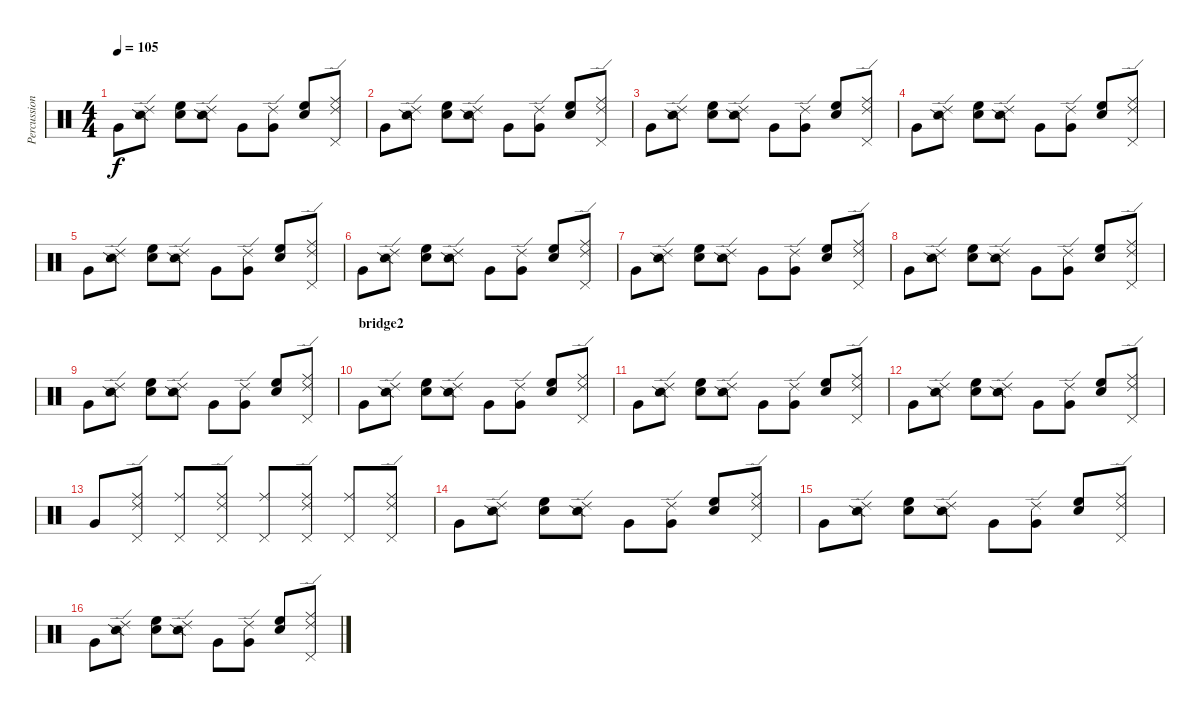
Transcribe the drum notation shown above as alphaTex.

\track ("Percussions" "Percussion") {instrument percussion}
\staff {score}
\articulation defaults
\ts (4 4)
\tempo 105
\clef neutral
\ks c "Very Low Tom (hit)".8{dy f}
("Ride (edge) 2" "Snare (side stick) 2").8 ("Hand Clap (hit)" "High Floor Tom (hit)").8 ("Ride (edge) 2" "Snare (side stick) 2").8 "Very Low Tom (hit)".8 ("Ride (edge) 2" "Very Low Tom (hit)").8 ("Hand Clap (hit)" "High Floor Tom (hit)").8 ("Ride (edge) 2" "Ride (middle)" "Pedal Hi-Hat (hit)").8 |
"Very Low Tom (hit)".8 ("Ride (edge) 2" "Snare (side stick) 2").8 ("Hand Clap (hit)" "High Floor Tom (hit)").8 ("Ride (edge) 2" "Snare (side stick) 2").8 "Very Low Tom (hit)".8 ("Ride (edge) 2" "Very Low Tom (hit)").8 ("Hand Clap (hit)" "High Floor Tom (hit)").8 ("Ride (edge) 2" "Ride (middle)" "Pedal Hi-Hat (hit)").8 |
"Very Low Tom (hit)".8 ("Ride (edge) 2" "Snare (side stick) 2").8 ("Hand Clap (hit)" "High Floor Tom (hit)").8 ("Ride (edge) 2" "Snare (side stick) 2").8 "Very Low Tom (hit)".8 ("Ride (edge) 2" "Very Low Tom (hit)").8 ("Hand Clap (hit)" "High Floor Tom (hit)").8 ("Ride (edge) 2" "Ride (middle)" "Pedal Hi-Hat (hit)").8 |
"Very Low Tom (hit)".8 ("Ride (edge) 2" "Snare (side stick) 2").8 ("Hand Clap (hit)" "High Floor Tom (hit)").8 ("Ride (edge) 2" "Snare (side stick) 2").8 "Very Low Tom (hit)".8 ("Ride (edge) 2" "Very Low Tom (hit)").8 ("Hand Clap (hit)" "High Floor Tom (hit)").8 ("Ride (edge) 2" "Ride (middle)" "Pedal Hi-Hat (hit)").8 |
"Very Low Tom (hit)".8 ("Ride (edge) 2" "Snare (side stick) 2").8 ("Hand Clap (hit)" "High Floor Tom (hit)").8 ("Ride (edge) 2" "Snare (side stick) 2").8 "Very Low Tom (hit)".8 ("Ride (edge) 2" "Very Low Tom (hit)").8 ("Hand Clap (hit)" "High Floor Tom (hit)").8 ("Ride (edge) 2" "Ride (middle)" "Pedal Hi-Hat (hit)").8 |
"Very Low Tom (hit)".8 ("Ride (edge) 2" "Snare (side stick) 2").8 ("Hand Clap (hit)" "High Floor Tom (hit)").8 ("Ride (edge) 2" "Snare (side stick) 2").8 "Very Low Tom (hit)".8 ("Ride (edge) 2" "Very Low Tom (hit)").8 ("Hand Clap (hit)" "High Floor Tom (hit)").8 ("Ride (edge) 2" "Ride (middle)" "Pedal Hi-Hat (hit)").8 |
"Very Low Tom (hit)".8 ("Ride (edge) 2" "Snare (side stick) 2").8 ("Hand Clap (hit)" "High Floor Tom (hit)").8 ("Ride (edge) 2" "Snare (side stick) 2").8 "Very Low Tom (hit)".8 ("Ride (edge) 2" "Very Low Tom (hit)").8 ("Hand Clap (hit)" "High Floor Tom (hit)").8 ("Ride (edge) 2" "Ride (middle)" "Pedal Hi-Hat (hit)").8 |
"Very Low Tom (hit)".8 ("Ride (edge) 2" "Snare (side stick) 2").8 ("Hand Clap (hit)" "High Floor Tom (hit)").8 ("Ride (edge) 2" "Snare (side stick) 2").8 "Very Low Tom (hit)".8 ("Ride (edge) 2" "Very Low Tom (hit)").8 ("Hand Clap (hit)" "High Floor Tom (hit)").8 ("Ride (edge) 2" "Ride (middle)" "Pedal Hi-Hat (hit)").8 |
"Very Low Tom (hit)".8 ("Ride (edge) 2" "Snare (side stick) 2").8 ("Hand Clap (hit)" "High Floor Tom (hit)").8 ("Ride (edge) 2" "Snare (side stick) 2").8 "Very Low Tom (hit)".8 ("Ride (edge) 2" "Very Low Tom (hit)").8 ("Hand Clap (hit)" "High Floor Tom (hit)").8 ("Ride (edge) 2" "Ride (middle)" "Pedal Hi-Hat (hit)").8 |
\section ("" "bridge2")
"Very Low Tom (hit)".8 ("Ride (edge) 2" "Snare (side stick) 2").8 ("Hand Clap (hit)" "High Floor Tom (hit)").8 ("Ride (edge) 2" "Snare (side stick) 2").8 "Very Low Tom (hit)".8 ("Ride (edge) 2" "Very Low Tom (hit)").8 ("Hand Clap (hit)" "High Floor Tom (hit)").8 ("Ride (edge) 2" "Ride (middle)" "Pedal Hi-Hat (hit)").8 |
"Very Low Tom (hit)".8 ("Ride (edge) 2" "Snare (side stick) 2").8 ("Hand Clap (hit)" "High Floor Tom (hit)").8 ("Ride (edge) 2" "Snare (side stick) 2").8 "Very Low Tom (hit)".8 ("Ride (edge) 2" "Very Low Tom (hit)").8 ("Hand Clap (hit)" "High Floor Tom (hit)").8 ("Ride (edge) 2" "Ride (middle)" "Pedal Hi-Hat (hit)").8 |
"Very Low Tom (hit)".8 ("Ride (edge) 2" "Snare (side stick) 2").8 ("Hand Clap (hit)" "High Floor Tom (hit)").8 ("Ride (edge) 2" "Snare (side stick) 2").8 "Very Low Tom (hit)".8 ("Ride (edge) 2" "Very Low Tom (hit)").8 ("Hand Clap (hit)" "High Floor Tom (hit)").8 ("Ride (edge) 2" "Ride (middle)" "Pedal Hi-Hat (hit)").8 |
"Very Low Tom (hit)".8 ("Ride (edge) 2" "Ride (middle)" "Pedal Hi-Hat (hit)").8 ("Ride (middle)" "Pedal Hi-Hat (hit)").8 ("Ride (edge) 2" "Ride (middle)" "Pedal Hi-Hat (hit)").8 ("Ride (middle)" "Pedal Hi-Hat (hit)").8 ("Ride (edge) 2" "Ride (middle)" "Pedal Hi-Hat (hit)").8 ("Ride (middle)" "Pedal Hi-Hat (hit)").8 ("Ride (edge) 2" "Ride (middle)" "Pedal Hi-Hat (hit)").8 |
"Very Low Tom (hit)".8 ("Ride (edge) 2" "Snare (side stick) 2").8 ("Hand Clap (hit)" "High Floor Tom (hit)").8 ("Ride (edge) 2" "Snare (side stick) 2").8 "Very Low Tom (hit)".8 ("Ride (edge) 2" "Very Low Tom (hit)").8 ("Hand Clap (hit)" "High Floor Tom (hit)").8 ("Ride (edge) 2" "Ride (middle)" "Pedal Hi-Hat (hit)").8 |
"Very Low Tom (hit)".8 ("Ride (edge) 2" "Snare (side stick) 2").8 ("Hand Clap (hit)" "High Floor Tom (hit)").8 ("Ride (edge) 2" "Snare (side stick) 2").8 "Very Low Tom (hit)".8 ("Ride (edge) 2" "Very Low Tom (hit)").8 ("Hand Clap (hit)" "High Floor Tom (hit)").8 ("Ride (edge) 2" "Ride (middle)" "Pedal Hi-Hat (hit)").8 |
"Very Low Tom (hit)".8 ("Ride (edge) 2" "Snare (side stick) 2").8 ("Hand Clap (hit)" "High Floor Tom (hit)").8 ("Ride (edge) 2" "Snare (side stick) 2").8 "Very Low Tom (hit)".8 ("Ride (edge) 2" "Very Low Tom (hit)").8 ("Hand Clap (hit)" "High Floor Tom (hit)").8 ("Ride (edge) 2" "Ride (middle)" "Pedal Hi-Hat (hit)").8
